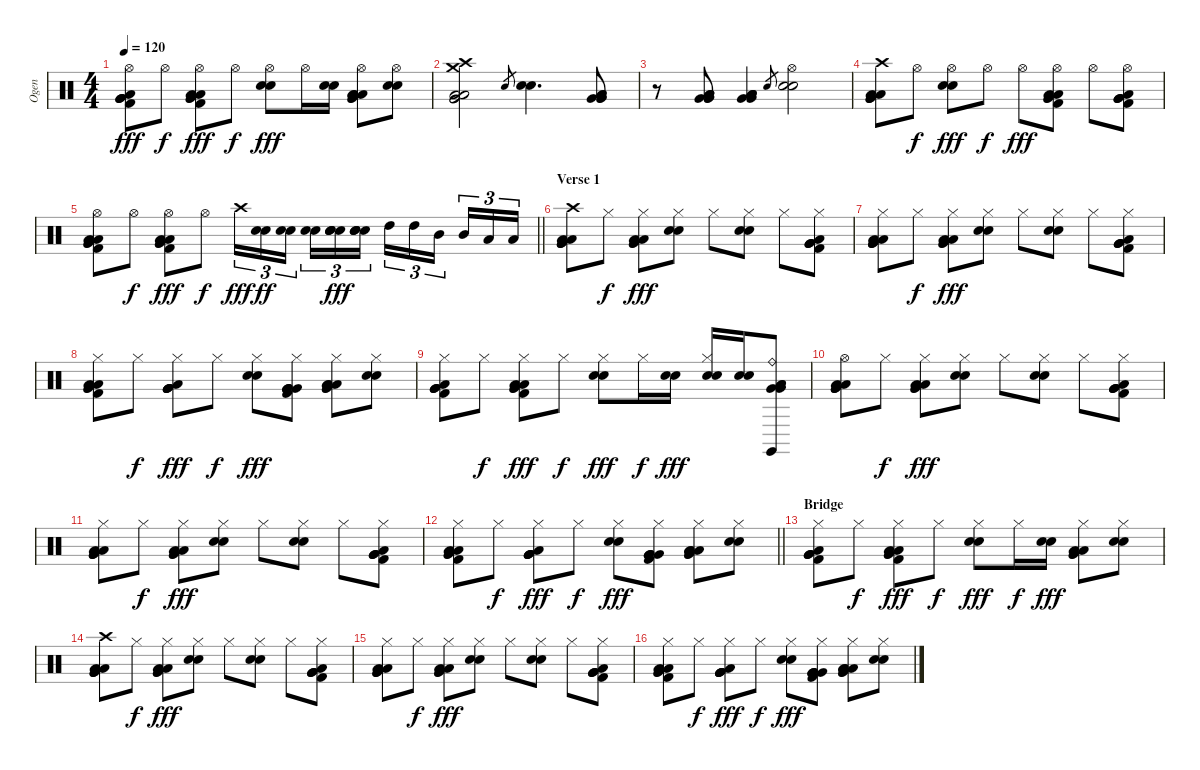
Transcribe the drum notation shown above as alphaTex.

\track ("Ogen" "Ogen") {instrument percussion}
\staff {score}
\articulation defaults
\ts (4 4)
\tempo 120
\clef neutral
\ks c
("Hi-Hat (open)" "Kick (hit) 2" "Very Low Tom (hit)" "Very Low Tom (hit)" "Low Floor Tom (hit)" "Very Low Tom (hit)").8{dy fff} "Hi-Hat (open)".8{dy f} ("Hi-Hat (open)" "Kick (hit) 2" "Very Low Tom (hit)" "Low Floor Tom (hit)" "Very Low Tom (hit)" "Low Floor Tom (hit)").8{dy fff} "Hi-Hat (open)".8{dy f} ("Hi-Hat (open)" "Snare (hit) 2" "Electric Snare (hit)").8{dy fff} "Hi-Hat (open)".16 ("Snare (hit) 2" "Electric Snare (hit)").16 ("Low Floor Tom (hit)" "Low Floor Tom (hit)" "Low Floor Tom (hit)" "Very Low Tom (hit)" "Very Low Tom (hit)" "Hi-Hat (open)").8 ("Snare (hit) 2" "Electric Snare (hit)" "Hi-Hat (open)").8 |
("Crash high (hit)" "Crash medium (hit)" "Low Floor Tom (hit)" "Very Low Tom (hit)" "Low Floor Tom (hit)" "Very Low Tom (hit)").2 "Snare (hit) 2".8{gr} ("Snare (hit) 2" "Electric Snare (hit)").4{d} ("Very Low Tom (hit)" "Very Low Tom (hit)" "Low Floor Tom (hit)" "Very Low Tom (hit)" "Low Floor Tom (hit)").8 |
r.8 ("Very Low Tom (hit)" "Low Floor Tom (hit)" "Very Low Tom (hit)" "Low Floor Tom (hit)" "Very Low Tom (hit)" "Low Floor Tom (hit)").8 ("Low Floor Tom (hit)" "Very Low Tom (hit)" "Low Floor Tom (hit)" "Very Low Tom (hit)" "Low Floor Tom (hit)").4 "Electric Snare (hit)".8{gr} ("Electric Snare (hit)" "Snare (hit) 2" "Hi-Hat (open)").2 |
("Crash high (hit)" "Very Low Tom (hit)" "Low Floor Tom (hit)" "Very Low Tom (hit)" "Low Floor Tom (hit)" "Very Low Tom (hit)").8 "Hi-Hat (open)".8{dy f} ("Hi-Hat (open)" "Electric Snare (hit)" "Snare (hit) 2").8{dy fff} "Hi-Hat (open)".8{dy f} "Hi-Hat (open)".8{dy fff} ("Hi-Hat (open)" "Very Low Tom (hit)" "Kick (hit) 2" "Low Floor Tom (hit)" "Very Low Tom (hit)" "Low Floor Tom (hit)").8 "Hi-Hat (open)".8 ("Hi-Hat (open)" "Very Low Tom (hit)" "Kick (hit) 2" "Very Low Tom (hit)" "Low Floor Tom (hit)" "Very Low Tom (hit)").8 |
\barLineRight lightlight
("Hi-Hat (open)" "Kick (hit) 2" "Very Low Tom (hit)" "Low Floor Tom (hit)" "Very Low Tom (hit)" "Low Floor Tom (hit)").8 "Hi-Hat (open)".8{dy f} ("Hi-Hat (open)" "Kick (hit) 2" "Very Low Tom (hit)" "Low Floor Tom (hit)" "Very Low Tom (hit)" "Low Floor Tom (hit)").8{dy fff} "Hi-Hat (open)".8{dy f} "Crash high (hit)".16{tu (3 2) dy fff} ("Snare (hit) 2" "Electric Snare (hit)").16{tu (3 2) dy ff} ("Electric Snare (hit)" "Snare (hit) 2").16{tu (3 2) beam splitsecondary} ("Snare (hit) 2" "Electric Snare (hit)").16{tu (3 2)} ("Electric Snare (hit)" "Electric Snare (hit)" "Snare (hit) 2" "Snare (hit) 2").16{tu (3 2) dy fff} ("Electric Snare (hit)" "Snare (hit) 2" "Snare (hit) 2" "Electric Snare (hit)").16{tu (3 2)} "High Tom (hit)".16{tu (3 2)} "High Tom (hit)".16{tu (3 2)} "Mid Tom (hit)".16{tu (3 2) beam splitsecondary} "Mid Tom (hit)".16{tu (3 2)} "Low Tom (hit)".16{tu (3 2)} "Low Tom (hit)".16{tu (3 2)} |
\section ("" "Verse 1")
("Crash high (hit)" "Very Low Tom (hit)" "Low Floor Tom (hit)" "Very Low Tom (hit)" "Low Floor Tom (hit)" "Very Low Tom (hit)").8 "Hi-Hat (closed)".8{dy f} ("Hi-Hat (closed)" "Very Low Tom (hit)" "Low Floor Tom (hit)" "Low Floor Tom (hit)" "Very Low Tom (hit)").8{dy fff} ("Hi-Hat (closed)" "Electric Snare (hit)" "Snare (hit) 2").8 "Hi-Hat (closed)".8 ("Hi-Hat (closed)" "Snare (hit) 2" "Electric Snare (hit)").8 "Hi-Hat (closed)".8 ("Hi-Hat (closed)" "Very Low Tom (hit)" "Kick (hit) 2" "Very Low Tom (hit)" "Low Floor Tom (hit)" "Very Low Tom (hit)").8 |
("Hi-Hat (closed)" "Very Low Tom (hit)" "Low Floor Tom (hit)" "Very Low Tom (hit)" "Low Floor Tom (hit)" "Very Low Tom (hit)").8 "Hi-Hat (closed)".8{dy f} ("Hi-Hat (closed)" "Very Low Tom (hit)" "Low Floor Tom (hit)" "Low Floor Tom (hit)" "Very Low Tom (hit)").8{dy fff} ("Hi-Hat (closed)" "Electric Snare (hit)" "Snare (hit) 2").8 "Hi-Hat (closed)".8 ("Hi-Hat (closed)" "Snare (hit) 2" "Electric Snare (hit)").8 "Hi-Hat (closed)".8 ("Hi-Hat (closed)" "Very Low Tom (hit)" "Kick (hit) 2" "Very Low Tom (hit)" "Low Floor Tom (hit)" "Very Low Tom (hit)").8 |
("Hi-Hat (closed)" "Very Low Tom (hit)" "Low Floor Tom (hit)" "Kick (hit) 2" "Very Low Tom (hit)" "Low Floor Tom (hit)").8 "Hi-Hat (closed)".8{dy f} ("Hi-Hat (closed)" "Very Low Tom (hit)" "Low Floor Tom (hit)" "Very Low Tom (hit)" "Very Low Tom (hit)" "Very Low Tom (hit)").8{dy fff} "Hi-Hat (closed)".8{dy f} ("Hi-Hat (closed)" "Snare (hit) 2" "Electric Snare (hit)").8{dy fff} ("Hi-Hat (closed)" "Very Low Tom (hit)" "Kick (hit) 2" "Very Low Tom (hit)" "Very Low Tom (hit)" "Very Low Tom (hit)").8 ("Hi-Hat (closed)" "Low Floor Tom (hit)" "Low Floor Tom (hit)" "Low Floor Tom (hit)" "Very Low Tom (hit)" "Very Low Tom (hit)").8 ("Hi-Hat (closed)" "Electric Snare (hit)" "Snare (hit) 2").8 |
("Hi-Hat (closed)" "Kick (hit) 2" "Very Low Tom (hit)" "Very Low Tom (hit)" "Low Floor Tom (hit)" "Very Low Tom (hit)").8 "Hi-Hat (closed)".8{dy f} ("Hi-Hat (closed)" "Kick (hit) 2" "Very Low Tom (hit)" "Low Floor Tom (hit)" "Very Low Tom (hit)" "Low Floor Tom (hit)").8{dy fff} "Hi-Hat (closed)".8{dy f} ("Hi-Hat (closed)" "Snare (hit) 2" "Electric Snare (hit)").8{dy fff} "Hi-Hat (closed)".16{dy f} ("Snare (hit) 2" "Electric Snare (hit)").16{dy fff} ("Snare (hit) 2" "Electric Snare (hit)" "Hi-Hat (closed)").16 ("Electric Snare (hit)" "Snare (hit) 2").16 ("Ride (bell)" "Claves (hit)" "Very Low Tom (hit)" "Low Floor Tom (hit)" "Very Low Tom (hit)" "Low Floor Tom (hit)").8 |
("Hi-Hat (open)" "Very Low Tom (hit)" "Low Floor Tom (hit)" "Very Low Tom (hit)" "Low Floor Tom (hit)" "Very Low Tom (hit)").8 "Hi-Hat (closed)".8{dy f} ("Hi-Hat (closed)" "Very Low Tom (hit)" "Low Floor Tom (hit)" "Low Floor Tom (hit)" "Very Low Tom (hit)").8{dy fff} ("Hi-Hat (closed)" "Electric Snare (hit)" "Snare (hit) 2").8 "Hi-Hat (closed)".8 ("Hi-Hat (closed)" "Snare (hit) 2" "Electric Snare (hit)").8 "Hi-Hat (closed)".8 ("Hi-Hat (closed)" "Very Low Tom (hit)" "Kick (hit) 2" "Very Low Tom (hit)" "Low Floor Tom (hit)" "Very Low Tom (hit)").8 |
("Hi-Hat (closed)" "Very Low Tom (hit)" "Low Floor Tom (hit)" "Very Low Tom (hit)" "Low Floor Tom (hit)" "Very Low Tom (hit)").8 "Hi-Hat (closed)".8{dy f} ("Hi-Hat (closed)" "Very Low Tom (hit)" "Low Floor Tom (hit)" "Low Floor Tom (hit)" "Very Low Tom (hit)").8{dy fff} ("Hi-Hat (closed)" "Electric Snare (hit)" "Snare (hit) 2").8 "Hi-Hat (closed)".8 ("Hi-Hat (closed)" "Snare (hit) 2" "Electric Snare (hit)").8 "Hi-Hat (closed)".8 ("Hi-Hat (closed)" "Very Low Tom (hit)" "Kick (hit) 2" "Very Low Tom (hit)" "Low Floor Tom (hit)" "Very Low Tom (hit)").8 |
\barLineRight lightlight
("Hi-Hat (closed)" "Very Low Tom (hit)" "Low Floor Tom (hit)" "Kick (hit) 2" "Very Low Tom (hit)" "Low Floor Tom (hit)").8 "Hi-Hat (closed)".8{dy f} ("Hi-Hat (closed)" "Very Low Tom (hit)" "Low Floor Tom (hit)" "Very Low Tom (hit)" "Very Low Tom (hit)" "Very Low Tom (hit)").8{dy fff} "Hi-Hat (closed)".8{dy f} ("Hi-Hat (closed)" "Snare (hit) 2" "Electric Snare (hit)").8{dy fff} ("Hi-Hat (closed)" "Very Low Tom (hit)" "Kick (hit) 2" "Very Low Tom (hit)" "Very Low Tom (hit)" "Very Low Tom (hit)").8 ("Hi-Hat (closed)" "Low Floor Tom (hit)" "Low Floor Tom (hit)" "Low Floor Tom (hit)" "Very Low Tom (hit)" "Very Low Tom (hit)").8 ("Hi-Hat (closed)" "Electric Snare (hit)" "Snare (hit) 2").8 |
\section ("" "Bridge")
("Hi-Hat (closed)" "Kick (hit) 2" "Very Low Tom (hit)" "Very Low Tom (hit)" "Low Floor Tom (hit)" "Very Low Tom (hit)").8 "Hi-Hat (closed)".8{dy f} ("Hi-Hat (closed)" "Kick (hit) 2" "Very Low Tom (hit)" "Low Floor Tom (hit)" "Very Low Tom (hit)" "Low Floor Tom (hit)").8{dy fff} "Hi-Hat (closed)".8{dy f} ("Hi-Hat (closed)" "Snare (hit) 2" "Electric Snare (hit)").8{dy fff} "Hi-Hat (closed)".16{dy f} ("Snare (hit) 2" "Electric Snare (hit)").16{dy fff} ("Low Floor Tom (hit)" "Very Low Tom (hit)" "Low Floor Tom (hit)" "Very Low Tom (hit)" "Hi-Hat (closed)").8 ("Electric Snare (hit)" "Snare (hit) 2" "Hi-Hat (closed)").8 |
("Crash high (hit)" "Very Low Tom (hit)" "Low Floor Tom (hit)" "Very Low Tom (hit)" "Low Floor Tom (hit)" "Very Low Tom (hit)").8 "Hi-Hat (closed)".8{dy f} ("Hi-Hat (closed)" "Very Low Tom (hit)" "Low Floor Tom (hit)" "Low Floor Tom (hit)" "Very Low Tom (hit)").8{dy fff} ("Hi-Hat (closed)" "Electric Snare (hit)" "Snare (hit) 2").8 "Hi-Hat (closed)".8 ("Hi-Hat (closed)" "Snare (hit) 2" "Electric Snare (hit)").8 "Hi-Hat (closed)".8 ("Hi-Hat (closed)" "Very Low Tom (hit)" "Kick (hit) 2" "Very Low Tom (hit)" "Low Floor Tom (hit)" "Very Low Tom (hit)").8 |
("Hi-Hat (closed)" "Very Low Tom (hit)" "Low Floor Tom (hit)" "Very Low Tom (hit)" "Low Floor Tom (hit)" "Very Low Tom (hit)").8 "Hi-Hat (closed)".8{dy f} ("Hi-Hat (closed)" "Very Low Tom (hit)" "Low Floor Tom (hit)" "Low Floor Tom (hit)" "Very Low Tom (hit)").8{dy fff} ("Hi-Hat (closed)" "Electric Snare (hit)" "Snare (hit) 2").8 "Hi-Hat (closed)".8 ("Hi-Hat (closed)" "Snare (hit) 2" "Electric Snare (hit)").8 "Hi-Hat (closed)".8 ("Hi-Hat (closed)" "Very Low Tom (hit)" "Kick (hit) 2" "Very Low Tom (hit)" "Low Floor Tom (hit)" "Very Low Tom (hit)").8 |
("Hi-Hat (closed)" "Very Low Tom (hit)" "Low Floor Tom (hit)" "Kick (hit) 2" "Very Low Tom (hit)" "Low Floor Tom (hit)").8 "Hi-Hat (closed)".8{dy f} ("Hi-Hat (closed)" "Very Low Tom (hit)" "Low Floor Tom (hit)" "Very Low Tom (hit)" "Very Low Tom (hit)" "Very Low Tom (hit)").8{dy fff} "Hi-Hat (closed)".8{dy f} ("Hi-Hat (closed)" "Snare (hit) 2" "Electric Snare (hit)").8{dy fff} ("Hi-Hat (closed)" "Very Low Tom (hit)" "Kick (hit) 2" "Very Low Tom (hit)" "Very Low Tom (hit)" "Very Low Tom (hit)").8 ("Hi-Hat (closed)" "Low Floor Tom (hit)" "Low Floor Tom (hit)" "Low Floor Tom (hit)" "Very Low Tom (hit)" "Very Low Tom (hit)").8 ("Hi-Hat (closed)" "Electric Snare (hit)" "Snare (hit) 2").8
